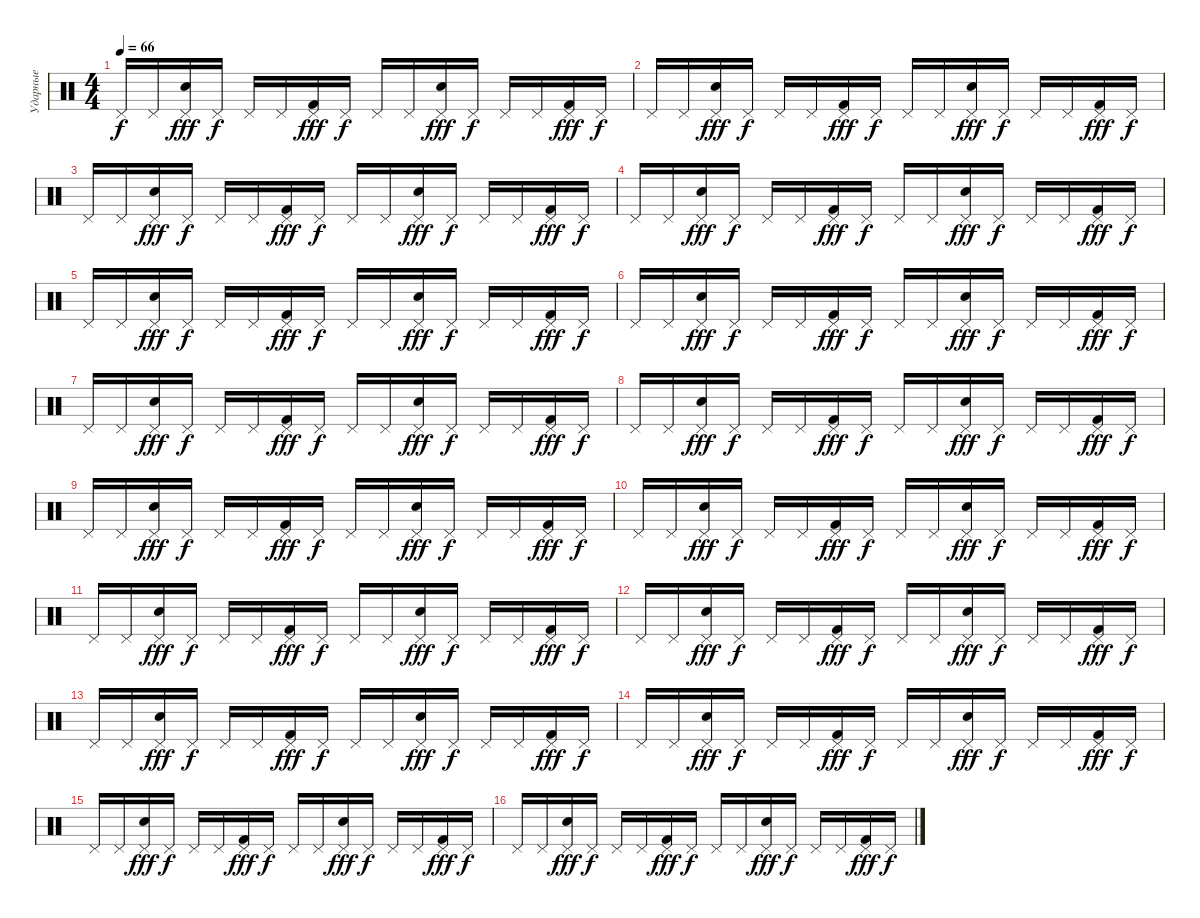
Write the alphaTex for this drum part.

\track ("Ударные" "Ударные") {instrument percussion}
\staff {score}
\articulation defaults
\ts (4 4)
\tempo 66
\clef neutral
\ks c "Pedal Hi-Hat (hit)".16{dy f} "Pedal Hi-Hat (hit)".16
("Snare (hit) 2" "Pedal Hi-Hat (hit)").16{dy fff} "Pedal Hi-Hat (hit)".16{dy f} "Pedal Hi-Hat (hit)".16 "Pedal Hi-Hat (hit)".16 ("Kick (hit) 2" "Pedal Hi-Hat (hit)").16{dy fff} "Pedal Hi-Hat (hit)".16{dy f} "Pedal Hi-Hat (hit)".16 "Pedal Hi-Hat (hit)".16 ("Snare (hit) 2" "Pedal Hi-Hat (hit)").16{dy fff} "Pedal Hi-Hat (hit)".16{dy f} "Pedal Hi-Hat (hit)".16 "Pedal Hi-Hat (hit)".16 ("Kick (hit) 2" "Pedal Hi-Hat (hit)").16{dy fff} "Pedal Hi-Hat (hit)".16{dy f} |
"Pedal Hi-Hat (hit)".16 "Pedal Hi-Hat (hit)".16 ("Snare (hit) 2" "Pedal Hi-Hat (hit)").16{dy fff} "Pedal Hi-Hat (hit)".16{dy f} "Pedal Hi-Hat (hit)".16 "Pedal Hi-Hat (hit)".16 ("Kick (hit) 2" "Pedal Hi-Hat (hit)").16{dy fff} "Pedal Hi-Hat (hit)".16{dy f} "Pedal Hi-Hat (hit)".16 "Pedal Hi-Hat (hit)".16 ("Snare (hit) 2" "Pedal Hi-Hat (hit)").16{dy fff} "Pedal Hi-Hat (hit)".16{dy f} "Pedal Hi-Hat (hit)".16 "Pedal Hi-Hat (hit)".16 ("Kick (hit) 2" "Pedal Hi-Hat (hit)").16{dy fff} "Pedal Hi-Hat (hit)".16{dy f} |
"Pedal Hi-Hat (hit)".16 "Pedal Hi-Hat (hit)".16 ("Snare (hit) 2" "Pedal Hi-Hat (hit)").16{dy fff} "Pedal Hi-Hat (hit)".16{dy f} "Pedal Hi-Hat (hit)".16 "Pedal Hi-Hat (hit)".16 ("Kick (hit) 2" "Pedal Hi-Hat (hit)").16{dy fff} "Pedal Hi-Hat (hit)".16{dy f} "Pedal Hi-Hat (hit)".16 "Pedal Hi-Hat (hit)".16 ("Snare (hit) 2" "Pedal Hi-Hat (hit)").16{dy fff} "Pedal Hi-Hat (hit)".16{dy f} "Pedal Hi-Hat (hit)".16 "Pedal Hi-Hat (hit)".16 ("Kick (hit) 2" "Pedal Hi-Hat (hit)").16{dy fff} "Pedal Hi-Hat (hit)".16{dy f} |
"Pedal Hi-Hat (hit)".16 "Pedal Hi-Hat (hit)".16 ("Snare (hit) 2" "Pedal Hi-Hat (hit)").16{dy fff} "Pedal Hi-Hat (hit)".16{dy f} "Pedal Hi-Hat (hit)".16 "Pedal Hi-Hat (hit)".16 ("Kick (hit) 2" "Pedal Hi-Hat (hit)").16{dy fff} "Pedal Hi-Hat (hit)".16{dy f} "Pedal Hi-Hat (hit)".16 "Pedal Hi-Hat (hit)".16 ("Snare (hit) 2" "Pedal Hi-Hat (hit)").16{dy fff} "Pedal Hi-Hat (hit)".16{dy f} "Pedal Hi-Hat (hit)".16 "Pedal Hi-Hat (hit)".16 ("Kick (hit) 2" "Pedal Hi-Hat (hit)").16{dy fff} "Pedal Hi-Hat (hit)".16{dy f} |
"Pedal Hi-Hat (hit)".16 "Pedal Hi-Hat (hit)".16 ("Snare (hit) 2" "Pedal Hi-Hat (hit)").16{dy fff} "Pedal Hi-Hat (hit)".16{dy f} "Pedal Hi-Hat (hit)".16 "Pedal Hi-Hat (hit)".16 ("Kick (hit) 2" "Pedal Hi-Hat (hit)").16{dy fff} "Pedal Hi-Hat (hit)".16{dy f} "Pedal Hi-Hat (hit)".16 "Pedal Hi-Hat (hit)".16 ("Snare (hit) 2" "Pedal Hi-Hat (hit)").16{dy fff} "Pedal Hi-Hat (hit)".16{dy f} "Pedal Hi-Hat (hit)".16 "Pedal Hi-Hat (hit)".16 ("Kick (hit) 2" "Pedal Hi-Hat (hit)").16{dy fff} "Pedal Hi-Hat (hit)".16{dy f} |
"Pedal Hi-Hat (hit)".16 "Pedal Hi-Hat (hit)".16 ("Snare (hit) 2" "Pedal Hi-Hat (hit)").16{dy fff} "Pedal Hi-Hat (hit)".16{dy f} "Pedal Hi-Hat (hit)".16 "Pedal Hi-Hat (hit)".16 ("Kick (hit) 2" "Pedal Hi-Hat (hit)").16{dy fff} "Pedal Hi-Hat (hit)".16{dy f} "Pedal Hi-Hat (hit)".16 "Pedal Hi-Hat (hit)".16 ("Snare (hit) 2" "Pedal Hi-Hat (hit)").16{dy fff} "Pedal Hi-Hat (hit)".16{dy f} "Pedal Hi-Hat (hit)".16 "Pedal Hi-Hat (hit)".16 ("Kick (hit) 2" "Pedal Hi-Hat (hit)").16{dy fff} "Pedal Hi-Hat (hit)".16{dy f} |
"Pedal Hi-Hat (hit)".16 "Pedal Hi-Hat (hit)".16 ("Snare (hit) 2" "Pedal Hi-Hat (hit)").16{dy fff} "Pedal Hi-Hat (hit)".16{dy f} "Pedal Hi-Hat (hit)".16 "Pedal Hi-Hat (hit)".16 ("Kick (hit) 2" "Pedal Hi-Hat (hit)").16{dy fff} "Pedal Hi-Hat (hit)".16{dy f} "Pedal Hi-Hat (hit)".16 "Pedal Hi-Hat (hit)".16 ("Snare (hit) 2" "Pedal Hi-Hat (hit)").16{dy fff} "Pedal Hi-Hat (hit)".16{dy f} "Pedal Hi-Hat (hit)".16 "Pedal Hi-Hat (hit)".16 ("Kick (hit) 2" "Pedal Hi-Hat (hit)").16{dy fff} "Pedal Hi-Hat (hit)".16{dy f} |
"Pedal Hi-Hat (hit)".16 "Pedal Hi-Hat (hit)".16 ("Snare (hit) 2" "Pedal Hi-Hat (hit)").16{dy fff} "Pedal Hi-Hat (hit)".16{dy f} "Pedal Hi-Hat (hit)".16 "Pedal Hi-Hat (hit)".16 ("Kick (hit) 2" "Pedal Hi-Hat (hit)").16{dy fff} "Pedal Hi-Hat (hit)".16{dy f} "Pedal Hi-Hat (hit)".16 "Pedal Hi-Hat (hit)".16 ("Snare (hit) 2" "Pedal Hi-Hat (hit)").16{dy fff} "Pedal Hi-Hat (hit)".16{dy f} "Pedal Hi-Hat (hit)".16 "Pedal Hi-Hat (hit)".16 ("Kick (hit) 2" "Pedal Hi-Hat (hit)").16{dy fff} "Pedal Hi-Hat (hit)".16{dy f} |
"Pedal Hi-Hat (hit)".16 "Pedal Hi-Hat (hit)".16 ("Snare (hit) 2" "Pedal Hi-Hat (hit)").16{dy fff} "Pedal Hi-Hat (hit)".16{dy f} "Pedal Hi-Hat (hit)".16 "Pedal Hi-Hat (hit)".16 ("Kick (hit) 2" "Pedal Hi-Hat (hit)").16{dy fff} "Pedal Hi-Hat (hit)".16{dy f} "Pedal Hi-Hat (hit)".16 "Pedal Hi-Hat (hit)".16 ("Snare (hit) 2" "Pedal Hi-Hat (hit)").16{dy fff} "Pedal Hi-Hat (hit)".16{dy f} "Pedal Hi-Hat (hit)".16 "Pedal Hi-Hat (hit)".16 ("Kick (hit) 2" "Pedal Hi-Hat (hit)").16{dy fff} "Pedal Hi-Hat (hit)".16{dy f} |
"Pedal Hi-Hat (hit)".16 "Pedal Hi-Hat (hit)".16 ("Snare (hit) 2" "Pedal Hi-Hat (hit)").16{dy fff} "Pedal Hi-Hat (hit)".16{dy f} "Pedal Hi-Hat (hit)".16 "Pedal Hi-Hat (hit)".16 ("Kick (hit) 2" "Pedal Hi-Hat (hit)").16{dy fff} "Pedal Hi-Hat (hit)".16{dy f} "Pedal Hi-Hat (hit)".16 "Pedal Hi-Hat (hit)".16 ("Snare (hit) 2" "Pedal Hi-Hat (hit)").16{dy fff} "Pedal Hi-Hat (hit)".16{dy f} "Pedal Hi-Hat (hit)".16 "Pedal Hi-Hat (hit)".16 ("Kick (hit) 2" "Pedal Hi-Hat (hit)").16{dy fff} "Pedal Hi-Hat (hit)".16{dy f} |
"Pedal Hi-Hat (hit)".16 "Pedal Hi-Hat (hit)".16 ("Snare (hit) 2" "Pedal Hi-Hat (hit)").16{dy fff} "Pedal Hi-Hat (hit)".16{dy f} "Pedal Hi-Hat (hit)".16 "Pedal Hi-Hat (hit)".16 ("Kick (hit) 2" "Pedal Hi-Hat (hit)").16{dy fff} "Pedal Hi-Hat (hit)".16{dy f} "Pedal Hi-Hat (hit)".16 "Pedal Hi-Hat (hit)".16 ("Snare (hit) 2" "Pedal Hi-Hat (hit)").16{dy fff} "Pedal Hi-Hat (hit)".16{dy f} "Pedal Hi-Hat (hit)".16 "Pedal Hi-Hat (hit)".16 ("Kick (hit) 2" "Pedal Hi-Hat (hit)").16{dy fff} "Pedal Hi-Hat (hit)".16{dy f} |
"Pedal Hi-Hat (hit)".16 "Pedal Hi-Hat (hit)".16 ("Snare (hit) 2" "Pedal Hi-Hat (hit)").16{dy fff} "Pedal Hi-Hat (hit)".16{dy f} "Pedal Hi-Hat (hit)".16 "Pedal Hi-Hat (hit)".16 ("Kick (hit) 2" "Pedal Hi-Hat (hit)").16{dy fff} "Pedal Hi-Hat (hit)".16{dy f} "Pedal Hi-Hat (hit)".16 "Pedal Hi-Hat (hit)".16 ("Snare (hit) 2" "Pedal Hi-Hat (hit)").16{dy fff} "Pedal Hi-Hat (hit)".16{dy f} "Pedal Hi-Hat (hit)".16 "Pedal Hi-Hat (hit)".16 ("Kick (hit) 2" "Pedal Hi-Hat (hit)").16{dy fff} "Pedal Hi-Hat (hit)".16{dy f} |
"Pedal Hi-Hat (hit)".16 "Pedal Hi-Hat (hit)".16 ("Snare (hit) 2" "Pedal Hi-Hat (hit)").16{dy fff} "Pedal Hi-Hat (hit)".16{dy f} "Pedal Hi-Hat (hit)".16 "Pedal Hi-Hat (hit)".16 ("Kick (hit) 2" "Pedal Hi-Hat (hit)").16{dy fff} "Pedal Hi-Hat (hit)".16{dy f} "Pedal Hi-Hat (hit)".16 "Pedal Hi-Hat (hit)".16 ("Snare (hit) 2" "Pedal Hi-Hat (hit)").16{dy fff} "Pedal Hi-Hat (hit)".16{dy f} "Pedal Hi-Hat (hit)".16 "Pedal Hi-Hat (hit)".16 ("Kick (hit) 2" "Pedal Hi-Hat (hit)").16{dy fff} "Pedal Hi-Hat (hit)".16{dy f} |
"Pedal Hi-Hat (hit)".16 "Pedal Hi-Hat (hit)".16 ("Snare (hit) 2" "Pedal Hi-Hat (hit)").16{dy fff} "Pedal Hi-Hat (hit)".16{dy f} "Pedal Hi-Hat (hit)".16 "Pedal Hi-Hat (hit)".16 ("Kick (hit) 2" "Pedal Hi-Hat (hit)").16{dy fff} "Pedal Hi-Hat (hit)".16{dy f} "Pedal Hi-Hat (hit)".16 "Pedal Hi-Hat (hit)".16 ("Snare (hit) 2" "Pedal Hi-Hat (hit)").16{dy fff} "Pedal Hi-Hat (hit)".16{dy f} "Pedal Hi-Hat (hit)".16 "Pedal Hi-Hat (hit)".16 ("Kick (hit) 2" "Pedal Hi-Hat (hit)").16{dy fff} "Pedal Hi-Hat (hit)".16{dy f} |
"Pedal Hi-Hat (hit)".16 "Pedal Hi-Hat (hit)".16 ("Snare (hit) 2" "Pedal Hi-Hat (hit)").16{dy fff} "Pedal Hi-Hat (hit)".16{dy f} "Pedal Hi-Hat (hit)".16 "Pedal Hi-Hat (hit)".16 ("Kick (hit) 2" "Pedal Hi-Hat (hit)").16{dy fff} "Pedal Hi-Hat (hit)".16{dy f} "Pedal Hi-Hat (hit)".16 "Pedal Hi-Hat (hit)".16 ("Snare (hit) 2" "Pedal Hi-Hat (hit)").16{dy fff} "Pedal Hi-Hat (hit)".16{dy f} "Pedal Hi-Hat (hit)".16 "Pedal Hi-Hat (hit)".16 ("Kick (hit) 2" "Pedal Hi-Hat (hit)").16{dy fff} "Pedal Hi-Hat (hit)".16{dy f} |
"Pedal Hi-Hat (hit)".16 "Pedal Hi-Hat (hit)".16 ("Snare (hit) 2" "Pedal Hi-Hat (hit)").16{dy fff} "Pedal Hi-Hat (hit)".16{dy f} "Pedal Hi-Hat (hit)".16 "Pedal Hi-Hat (hit)".16 ("Kick (hit) 2" "Pedal Hi-Hat (hit)").16{dy fff} "Pedal Hi-Hat (hit)".16{dy f} "Pedal Hi-Hat (hit)".16 "Pedal Hi-Hat (hit)".16 ("Snare (hit) 2" "Pedal Hi-Hat (hit)").16{dy fff} "Pedal Hi-Hat (hit)".16{dy f} "Pedal Hi-Hat (hit)".16 "Pedal Hi-Hat (hit)".16 ("Kick (hit) 2" "Pedal Hi-Hat (hit)").16{dy fff} "Pedal Hi-Hat (hit)".16{dy f}
